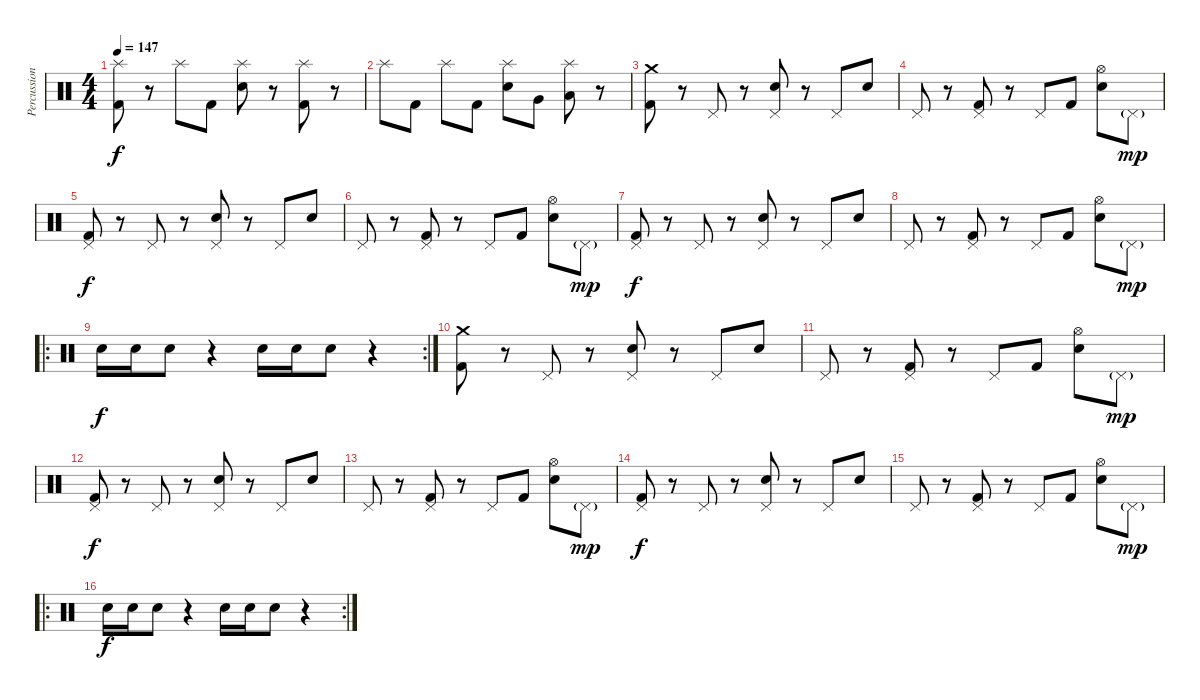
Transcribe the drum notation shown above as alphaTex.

\track ("Percussion" "Percussion") {instrument percussion}
\staff {score}
\articulation defaults
\ts (4 4)
\tempo 147
\clef neutral
\ks c
("Splash (hit)" "Kick (hit) 2").8{dy f} r.8 "Splash (hit)".8 "Kick (hit) 2".8 ("Splash (hit)" "Electric Snare (hit)").8 r.8 ("Splash (hit)" "Kick (hit) 2").8 r.8 |
"Splash (hit)".8 "Kick (hit) 2".8 "Splash (hit)".8 "Kick (hit) 2".8 ("Splash (hit)" "Electric Snare (hit)").8 "Very Low Tom (hit)".8 ("Splash (hit)" "Low Floor Tom (hit)").8 r.8 |
("Crash medium (hit)" "Kick (hit) 2").8 r.8 "Pedal Hi-Hat (hit)".8 r.8 ("Pedal Hi-Hat (hit)" "Electric Snare (hit)").8 r.8 "Pedal Hi-Hat (hit)".8 "Electric Snare (hit)".8 |
"Pedal Hi-Hat (hit)".8 r.8 ("Pedal Hi-Hat (hit)" "Kick (hit) 2").8 r.8 "Pedal Hi-Hat (hit)".8 "Kick (hit) 2".8 ("Hi-Hat (open)" "Electric Snare (hit)").8 "Pedal Hi-Hat (hit)"{g}.8{dy mp} |
("Pedal Hi-Hat (hit)" "Kick (hit) 2").8{dy f} r.8 "Pedal Hi-Hat (hit)".8 r.8 ("Pedal Hi-Hat (hit)" "Electric Snare (hit)").8 r.8 "Pedal Hi-Hat (hit)".8 "Electric Snare (hit)".8 |
"Pedal Hi-Hat (hit)".8 r.8 ("Pedal Hi-Hat (hit)" "Kick (hit) 2").8 r.8 "Pedal Hi-Hat (hit)".8 "Kick (hit) 2".8 ("Hi-Hat (open)" "Electric Snare (hit)").8 "Pedal Hi-Hat (hit)"{g}.8{dy mp} |
("Pedal Hi-Hat (hit)" "Kick (hit) 2").8{dy f} r.8 "Pedal Hi-Hat (hit)".8 r.8 ("Pedal Hi-Hat (hit)" "Electric Snare (hit)").8 r.8 "Pedal Hi-Hat (hit)".8 "Electric Snare (hit)".8 |
"Pedal Hi-Hat (hit)".8 r.8 ("Pedal Hi-Hat (hit)" "Kick (hit) 2").8 r.8 "Pedal Hi-Hat (hit)".8 "Kick (hit) 2".8 ("Hi-Hat (open)" "Electric Snare (hit)").8 "Pedal Hi-Hat (hit)"{g}.8{dy mp} |
\ro
\rc 2 "Electric Snare (hit)".16{dy f} "Electric Snare (hit)".16 "Electric Snare (hit)".8
r.4 "Electric Snare (hit)".16 "Electric Snare (hit)".16 "Electric Snare (hit)".8 r.4 |
("Crash medium (hit)" "Kick (hit) 2").8 r.8 "Pedal Hi-Hat (hit)".8 r.8 ("Pedal Hi-Hat (hit)" "Electric Snare (hit)").8 r.8 "Pedal Hi-Hat (hit)".8 "Electric Snare (hit)".8 |
"Pedal Hi-Hat (hit)".8 r.8 ("Pedal Hi-Hat (hit)" "Kick (hit) 2").8 r.8 "Pedal Hi-Hat (hit)".8 "Kick (hit) 2".8 ("Hi-Hat (open)" "Electric Snare (hit)").8 "Pedal Hi-Hat (hit)"{g}.8{dy mp} |
("Pedal Hi-Hat (hit)" "Kick (hit) 2").8{dy f} r.8 "Pedal Hi-Hat (hit)".8 r.8 ("Pedal Hi-Hat (hit)" "Electric Snare (hit)").8 r.8 "Pedal Hi-Hat (hit)".8 "Electric Snare (hit)".8 |
"Pedal Hi-Hat (hit)".8 r.8 ("Pedal Hi-Hat (hit)" "Kick (hit) 2").8 r.8 "Pedal Hi-Hat (hit)".8 "Kick (hit) 2".8 ("Hi-Hat (open)" "Electric Snare (hit)").8 "Pedal Hi-Hat (hit)"{g}.8{dy mp} |
("Pedal Hi-Hat (hit)" "Kick (hit) 2").8{dy f} r.8 "Pedal Hi-Hat (hit)".8 r.8 ("Pedal Hi-Hat (hit)" "Electric Snare (hit)").8 r.8 "Pedal Hi-Hat (hit)".8 "Electric Snare (hit)".8 |
"Pedal Hi-Hat (hit)".8 r.8 ("Pedal Hi-Hat (hit)" "Kick (hit) 2").8 r.8 "Pedal Hi-Hat (hit)".8 "Kick (hit) 2".8 ("Hi-Hat (open)" "Electric Snare (hit)").8 "Pedal Hi-Hat (hit)"{g}.8{dy mp} |
\ro
\rc 2 "Electric Snare (hit)".16{dy f} "Electric Snare (hit)".16 "Electric Snare (hit)".8
r.4 "Electric Snare (hit)".16 "Electric Snare (hit)".16 "Electric Snare (hit)".8 r.4
